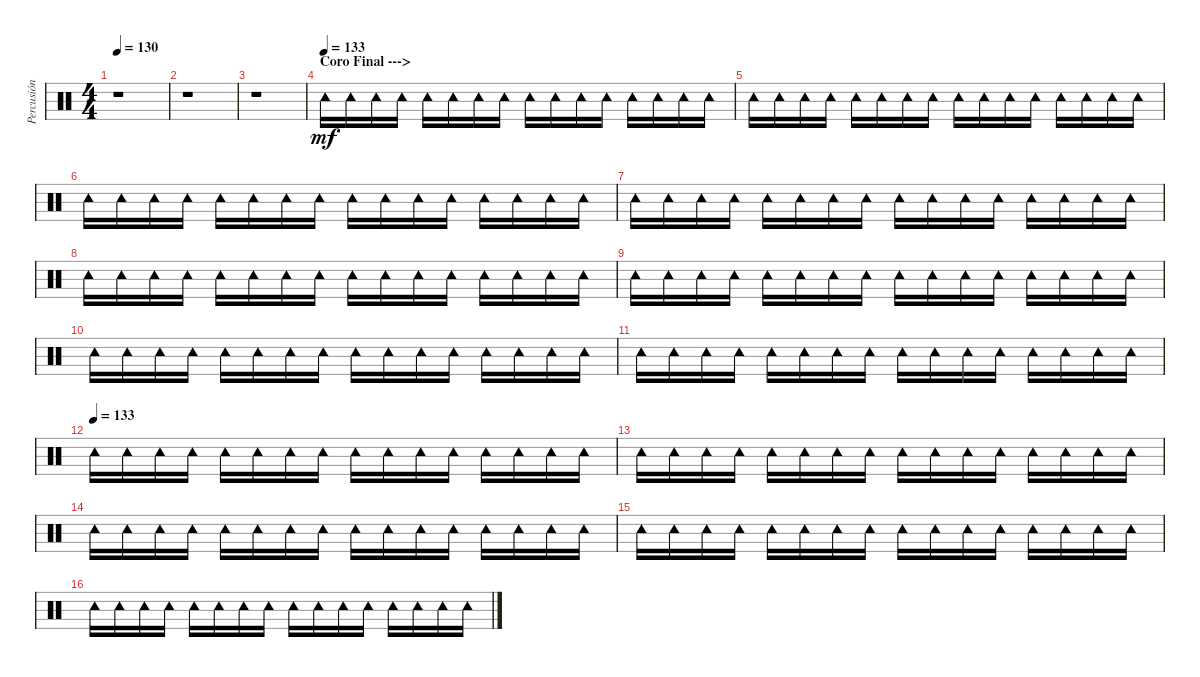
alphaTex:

\track ("Percusión extra" "Percusión ") {instrument percussion}
\staff {score}
\articulation defaults
\ts (4 4)
\tempo 130
\clef neutral
\ks c
r.1{dy mf} |
r.1 |
r.1 |
\section ("" "Coro Final --->")
\tempo (133)
"Tambourine (hit)".16 "Tambourine (hit)".16 "Tambourine (hit)".16 "Tambourine (hit)".16 "Tambourine (hit)".16 "Tambourine (hit)".16 "Tambourine (hit)".16 "Tambourine (hit)".16 "Tambourine (hit)".16 "Tambourine (hit)".16 "Tambourine (hit)".16 "Tambourine (hit)".16 "Tambourine (hit)".16 "Tambourine (hit)".16 "Tambourine (hit)".16 "Tambourine (hit)".16 |
"Tambourine (hit)".16 "Tambourine (hit)".16 "Tambourine (hit)".16 "Tambourine (hit)".16 "Tambourine (hit)".16 "Tambourine (hit)".16 "Tambourine (hit)".16 "Tambourine (hit)".16 "Tambourine (hit)".16 "Tambourine (hit)".16 "Tambourine (hit)".16 "Tambourine (hit)".16 "Tambourine (hit)".16 "Tambourine (hit)".16 "Tambourine (hit)".16 "Tambourine (hit)".16 |
"Tambourine (hit)".16 "Tambourine (hit)".16 "Tambourine (hit)".16 "Tambourine (hit)".16 "Tambourine (hit)".16 "Tambourine (hit)".16 "Tambourine (hit)".16 "Tambourine (hit)".16 "Tambourine (hit)".16 "Tambourine (hit)".16 "Tambourine (hit)".16 "Tambourine (hit)".16 "Tambourine (hit)".16 "Tambourine (hit)".16 "Tambourine (hit)".16 "Tambourine (hit)".16 |
"Tambourine (hit)".16 "Tambourine (hit)".16 "Tambourine (hit)".16 "Tambourine (hit)".16 "Tambourine (hit)".16 "Tambourine (hit)".16 "Tambourine (hit)".16 "Tambourine (hit)".16 "Tambourine (hit)".16 "Tambourine (hit)".16 "Tambourine (hit)".16 "Tambourine (hit)".16 "Tambourine (hit)".16 "Tambourine (hit)".16 "Tambourine (hit)".16 "Tambourine (hit)".16 |
"Tambourine (hit)".16 "Tambourine (hit)".16 "Tambourine (hit)".16 "Tambourine (hit)".16 "Tambourine (hit)".16 "Tambourine (hit)".16 "Tambourine (hit)".16 "Tambourine (hit)".16 "Tambourine (hit)".16 "Tambourine (hit)".16 "Tambourine (hit)".16 "Tambourine (hit)".16 "Tambourine (hit)".16 "Tambourine (hit)".16 "Tambourine (hit)".16 "Tambourine (hit)".16 |
"Tambourine (hit)".16 "Tambourine (hit)".16 "Tambourine (hit)".16 "Tambourine (hit)".16 "Tambourine (hit)".16 "Tambourine (hit)".16 "Tambourine (hit)".16 "Tambourine (hit)".16 "Tambourine (hit)".16 "Tambourine (hit)".16 "Tambourine (hit)".16 "Tambourine (hit)".16 "Tambourine (hit)".16 "Tambourine (hit)".16 "Tambourine (hit)".16 "Tambourine (hit)".16 |
"Tambourine (hit)".16 "Tambourine (hit)".16 "Tambourine (hit)".16 "Tambourine (hit)".16 "Tambourine (hit)".16 "Tambourine (hit)".16 "Tambourine (hit)".16 "Tambourine (hit)".16 "Tambourine (hit)".16 "Tambourine (hit)".16 "Tambourine (hit)".16 "Tambourine (hit)".16 "Tambourine (hit)".16 "Tambourine (hit)".16 "Tambourine (hit)".16 "Tambourine (hit)".16 |
"Tambourine (hit)".16 "Tambourine (hit)".16 "Tambourine (hit)".16 "Tambourine (hit)".16 "Tambourine (hit)".16 "Tambourine (hit)".16 "Tambourine (hit)".16 "Tambourine (hit)".16 "Tambourine (hit)".16 "Tambourine (hit)".16 "Tambourine (hit)".16 "Tambourine (hit)".16 "Tambourine (hit)".16 "Tambourine (hit)".16 "Tambourine (hit)".16 "Tambourine (hit)".16 |
\tempo (133)
"Tambourine (hit)".16 "Tambourine (hit)".16 "Tambourine (hit)".16 "Tambourine (hit)".16 "Tambourine (hit)".16 "Tambourine (hit)".16 "Tambourine (hit)".16 "Tambourine (hit)".16 "Tambourine (hit)".16 "Tambourine (hit)".16 "Tambourine (hit)".16 "Tambourine (hit)".16 "Tambourine (hit)".16 "Tambourine (hit)".16 "Tambourine (hit)".16 "Tambourine (hit)".16 |
"Tambourine (hit)".16 "Tambourine (hit)".16 "Tambourine (hit)".16 "Tambourine (hit)".16 "Tambourine (hit)".16 "Tambourine (hit)".16 "Tambourine (hit)".16 "Tambourine (hit)".16 "Tambourine (hit)".16 "Tambourine (hit)".16 "Tambourine (hit)".16 "Tambourine (hit)".16 "Tambourine (hit)".16 "Tambourine (hit)".16 "Tambourine (hit)".16 "Tambourine (hit)".16 |
"Tambourine (hit)".16 "Tambourine (hit)".16 "Tambourine (hit)".16 "Tambourine (hit)".16 "Tambourine (hit)".16 "Tambourine (hit)".16 "Tambourine (hit)".16 "Tambourine (hit)".16 "Tambourine (hit)".16 "Tambourine (hit)".16 "Tambourine (hit)".16 "Tambourine (hit)".16 "Tambourine (hit)".16 "Tambourine (hit)".16 "Tambourine (hit)".16 "Tambourine (hit)".16 |
"Tambourine (hit)".16 "Tambourine (hit)".16 "Tambourine (hit)".16 "Tambourine (hit)".16 "Tambourine (hit)".16 "Tambourine (hit)".16 "Tambourine (hit)".16 "Tambourine (hit)".16 "Tambourine (hit)".16 "Tambourine (hit)".16 "Tambourine (hit)".16 "Tambourine (hit)".16 "Tambourine (hit)".16 "Tambourine (hit)".16 "Tambourine (hit)".16 "Tambourine (hit)".16 |
"Tambourine (hit)".16 "Tambourine (hit)".16 "Tambourine (hit)".16 "Tambourine (hit)".16 "Tambourine (hit)".16 "Tambourine (hit)".16 "Tambourine (hit)".16 "Tambourine (hit)".16 "Tambourine (hit)".16 "Tambourine (hit)".16 "Tambourine (hit)".16 "Tambourine (hit)".16 "Tambourine (hit)".16 "Tambourine (hit)".16 "Tambourine (hit)".16 "Tambourine (hit)".16
